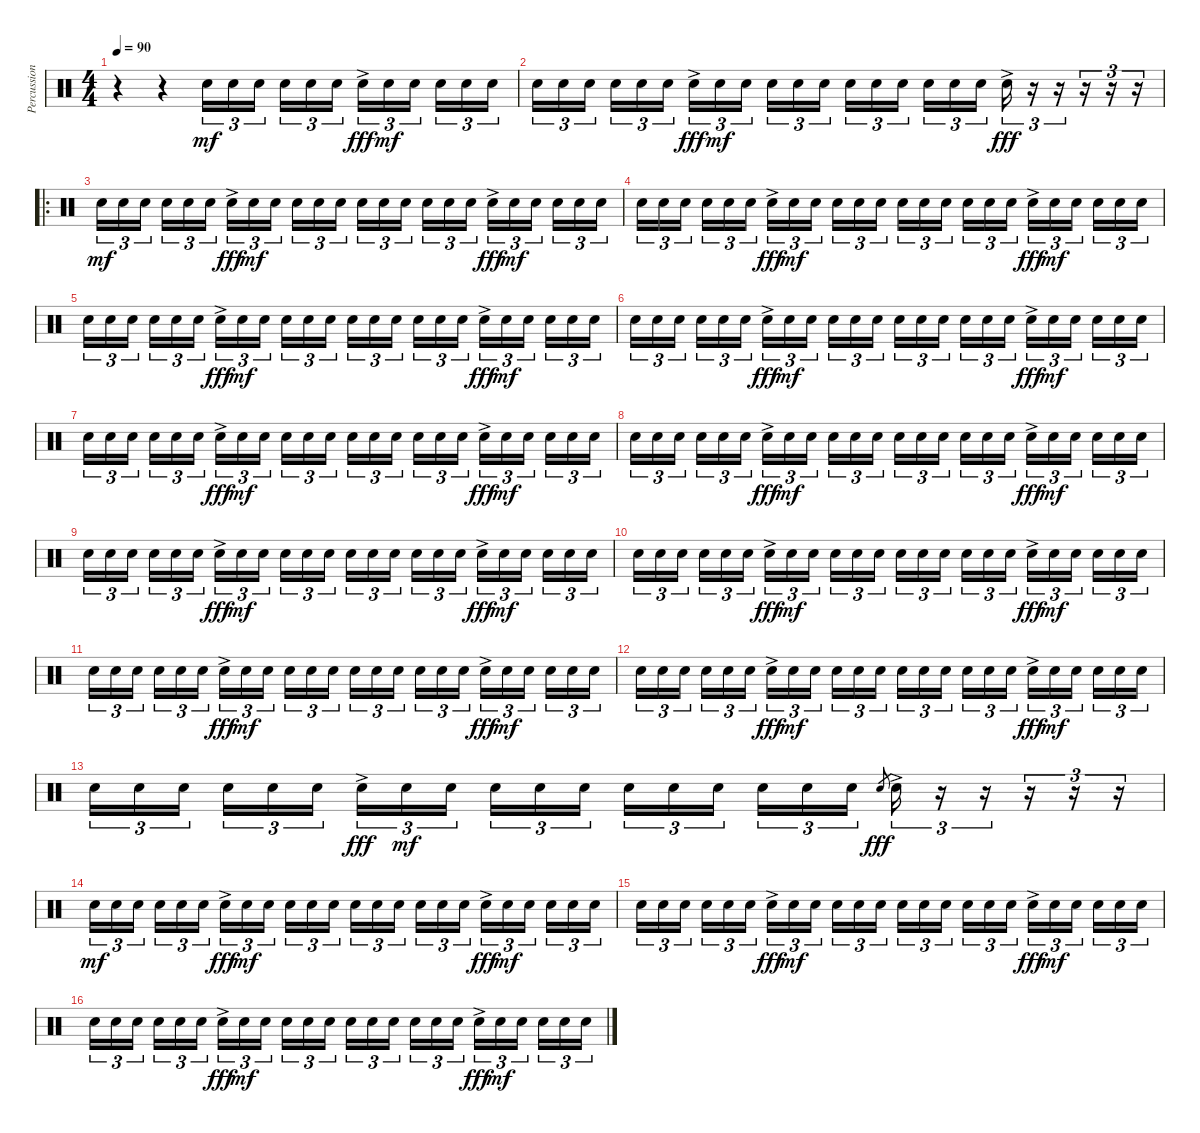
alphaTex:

\track ("Percussions" "Percussion") {instrument percussion}
\staff {score}
\articulation defaults
\ts (4 4)
\tempo 90
\clef neutral
\ks c
r.4{dy mf} r.4 "Electric Snare (hit)".16{tu (3 2)} "Electric Snare (hit)".16{tu (3 2)} "Electric Snare (hit)".16{tu (3 2)} "Electric Snare (hit)".16{tu (3 2)} "Electric Snare (hit)".16{tu (3 2)} "Electric Snare (hit)".16{tu (3 2)} "Electric Snare (hit)"{ac}.16{tu (3 2) dy fff} "Electric Snare (hit)".16{tu (3 2) dy mf} "Electric Snare (hit)".16{tu (3 2)} "Electric Snare (hit)".16{tu (3 2)} "Electric Snare (hit)".16{tu (3 2)} "Electric Snare (hit)".16{tu (3 2)} |
"Electric Snare (hit)".16{tu (3 2)} "Electric Snare (hit)".16{tu (3 2)} "Electric Snare (hit)".16{tu (3 2)} "Electric Snare (hit)".16{tu (3 2)} "Electric Snare (hit)".16{tu (3 2)} "Electric Snare (hit)".16{tu (3 2)} "Electric Snare (hit)"{ac}.16{tu (3 2) dy fff} "Electric Snare (hit)".16{tu (3 2) dy mf} "Electric Snare (hit)".16{tu (3 2)} "Electric Snare (hit)".16{tu (3 2)} "Electric Snare (hit)".16{tu (3 2)} "Electric Snare (hit)".16{tu (3 2)} "Electric Snare (hit)".16{tu (3 2)} "Electric Snare (hit)".16{tu (3 2)} "Electric Snare (hit)".16{tu (3 2)} "Electric Snare (hit)".16{tu (3 2)} "Electric Snare (hit)".16{tu (3 2)} "Electric Snare (hit)".16{tu (3 2)} "Electric Snare (hit)"{ac}.16{tu (3 2) dy fff} r.16{tu (3 2)} r.16{tu (3 2)} r.16{tu (3 2)} r.16{tu (3 2)} r.16{tu (3 2)} |
\ro
\section ("" "")
"Electric Snare (hit)".16{tu (3 2) dy mf} "Electric Snare (hit)".16{tu (3 2)} "Electric Snare (hit)".16{tu (3 2)} "Electric Snare (hit)".16{tu (3 2)} "Electric Snare (hit)".16{tu (3 2)} "Electric Snare (hit)".16{tu (3 2)} "Electric Snare (hit)"{ac}.16{tu (3 2) dy fff} "Electric Snare (hit)".16{tu (3 2) dy mf} "Electric Snare (hit)".16{tu (3 2)} "Electric Snare (hit)".16{tu (3 2)} "Electric Snare (hit)".16{tu (3 2)} "Electric Snare (hit)".16{tu (3 2)} "Electric Snare (hit)".16{tu (3 2)} "Electric Snare (hit)".16{tu (3 2)} "Electric Snare (hit)".16{tu (3 2)} "Electric Snare (hit)".16{tu (3 2)} "Electric Snare (hit)".16{tu (3 2)} "Electric Snare (hit)".16{tu (3 2)} "Electric Snare (hit)"{ac}.16{tu (3 2) dy fff} "Electric Snare (hit)".16{tu (3 2) dy mf} "Electric Snare (hit)".16{tu (3 2)} "Electric Snare (hit)".16{tu (3 2)} "Electric Snare (hit)".16{tu (3 2)} "Electric Snare (hit)".16{tu (3 2)} |
"Electric Snare (hit)".16{tu (3 2)} "Electric Snare (hit)".16{tu (3 2)} "Electric Snare (hit)".16{tu (3 2)} "Electric Snare (hit)".16{tu (3 2)} "Electric Snare (hit)".16{tu (3 2)} "Electric Snare (hit)".16{tu (3 2)} "Electric Snare (hit)"{ac}.16{tu (3 2) dy fff} "Electric Snare (hit)".16{tu (3 2) dy mf} "Electric Snare (hit)".16{tu (3 2)} "Electric Snare (hit)".16{tu (3 2)} "Electric Snare (hit)".16{tu (3 2)} "Electric Snare (hit)".16{tu (3 2)} "Electric Snare (hit)".16{tu (3 2)} "Electric Snare (hit)".16{tu (3 2)} "Electric Snare (hit)".16{tu (3 2)} "Electric Snare (hit)".16{tu (3 2)} "Electric Snare (hit)".16{tu (3 2)} "Electric Snare (hit)".16{tu (3 2)} "Electric Snare (hit)"{ac}.16{tu (3 2) dy fff} "Electric Snare (hit)".16{tu (3 2) dy mf} "Electric Snare (hit)".16{tu (3 2)} "Electric Snare (hit)".16{tu (3 2)} "Electric Snare (hit)".16{tu (3 2)} "Electric Snare (hit)".16{tu (3 2)} |
"Electric Snare (hit)".16{tu (3 2)} "Electric Snare (hit)".16{tu (3 2)} "Electric Snare (hit)".16{tu (3 2)} "Electric Snare (hit)".16{tu (3 2)} "Electric Snare (hit)".16{tu (3 2)} "Electric Snare (hit)".16{tu (3 2)} "Electric Snare (hit)"{ac}.16{tu (3 2) dy fff} "Electric Snare (hit)".16{tu (3 2) dy mf} "Electric Snare (hit)".16{tu (3 2)} "Electric Snare (hit)".16{tu (3 2)} "Electric Snare (hit)".16{tu (3 2)} "Electric Snare (hit)".16{tu (3 2)} "Electric Snare (hit)".16{tu (3 2)} "Electric Snare (hit)".16{tu (3 2)} "Electric Snare (hit)".16{tu (3 2)} "Electric Snare (hit)".16{tu (3 2)} "Electric Snare (hit)".16{tu (3 2)} "Electric Snare (hit)".16{tu (3 2)} "Electric Snare (hit)"{ac}.16{tu (3 2) dy fff} "Electric Snare (hit)".16{tu (3 2) dy mf} "Electric Snare (hit)".16{tu (3 2)} "Electric Snare (hit)".16{tu (3 2)} "Electric Snare (hit)".16{tu (3 2)} "Electric Snare (hit)".16{tu (3 2)} |
"Electric Snare (hit)".16{tu (3 2)} "Electric Snare (hit)".16{tu (3 2)} "Electric Snare (hit)".16{tu (3 2)} "Electric Snare (hit)".16{tu (3 2)} "Electric Snare (hit)".16{tu (3 2)} "Electric Snare (hit)".16{tu (3 2)} "Electric Snare (hit)"{ac}.16{tu (3 2) dy fff} "Electric Snare (hit)".16{tu (3 2) dy mf} "Electric Snare (hit)".16{tu (3 2)} "Electric Snare (hit)".16{tu (3 2)} "Electric Snare (hit)".16{tu (3 2)} "Electric Snare (hit)".16{tu (3 2)} "Electric Snare (hit)".16{tu (3 2)} "Electric Snare (hit)".16{tu (3 2)} "Electric Snare (hit)".16{tu (3 2)} "Electric Snare (hit)".16{tu (3 2)} "Electric Snare (hit)".16{tu (3 2)} "Electric Snare (hit)".16{tu (3 2)} "Electric Snare (hit)"{ac}.16{tu (3 2) dy fff} "Electric Snare (hit)".16{tu (3 2) dy mf} "Electric Snare (hit)".16{tu (3 2)} "Electric Snare (hit)".16{tu (3 2)} "Electric Snare (hit)".16{tu (3 2)} "Electric Snare (hit)".16{tu (3 2)} |
"Electric Snare (hit)".16{tu (3 2)} "Electric Snare (hit)".16{tu (3 2)} "Electric Snare (hit)".16{tu (3 2)} "Electric Snare (hit)".16{tu (3 2)} "Electric Snare (hit)".16{tu (3 2)} "Electric Snare (hit)".16{tu (3 2)} "Electric Snare (hit)"{ac}.16{tu (3 2) dy fff} "Electric Snare (hit)".16{tu (3 2) dy mf} "Electric Snare (hit)".16{tu (3 2)} "Electric Snare (hit)".16{tu (3 2)} "Electric Snare (hit)".16{tu (3 2)} "Electric Snare (hit)".16{tu (3 2)} "Electric Snare (hit)".16{tu (3 2)} "Electric Snare (hit)".16{tu (3 2)} "Electric Snare (hit)".16{tu (3 2)} "Electric Snare (hit)".16{tu (3 2)} "Electric Snare (hit)".16{tu (3 2)} "Electric Snare (hit)".16{tu (3 2)} "Electric Snare (hit)"{ac}.16{tu (3 2) dy fff} "Electric Snare (hit)".16{tu (3 2) dy mf} "Electric Snare (hit)".16{tu (3 2)} "Electric Snare (hit)".16{tu (3 2)} "Electric Snare (hit)".16{tu (3 2)} "Electric Snare (hit)".16{tu (3 2)} |
"Electric Snare (hit)".16{tu (3 2)} "Electric Snare (hit)".16{tu (3 2)} "Electric Snare (hit)".16{tu (3 2)} "Electric Snare (hit)".16{tu (3 2)} "Electric Snare (hit)".16{tu (3 2)} "Electric Snare (hit)".16{tu (3 2)} "Electric Snare (hit)"{ac}.16{tu (3 2) dy fff} "Electric Snare (hit)".16{tu (3 2) dy mf} "Electric Snare (hit)".16{tu (3 2)} "Electric Snare (hit)".16{tu (3 2)} "Electric Snare (hit)".16{tu (3 2)} "Electric Snare (hit)".16{tu (3 2)} "Electric Snare (hit)".16{tu (3 2)} "Electric Snare (hit)".16{tu (3 2)} "Electric Snare (hit)".16{tu (3 2)} "Electric Snare (hit)".16{tu (3 2)} "Electric Snare (hit)".16{tu (3 2)} "Electric Snare (hit)".16{tu (3 2)} "Electric Snare (hit)"{ac}.16{tu (3 2) dy fff} "Electric Snare (hit)".16{tu (3 2) dy mf} "Electric Snare (hit)".16{tu (3 2)} "Electric Snare (hit)".16{tu (3 2)} "Electric Snare (hit)".16{tu (3 2)} "Electric Snare (hit)".16{tu (3 2)} |
"Electric Snare (hit)".16{tu (3 2)} "Electric Snare (hit)".16{tu (3 2)} "Electric Snare (hit)".16{tu (3 2)} "Electric Snare (hit)".16{tu (3 2)} "Electric Snare (hit)".16{tu (3 2)} "Electric Snare (hit)".16{tu (3 2)} "Electric Snare (hit)"{ac}.16{tu (3 2) dy fff} "Electric Snare (hit)".16{tu (3 2) dy mf} "Electric Snare (hit)".16{tu (3 2)} "Electric Snare (hit)".16{tu (3 2)} "Electric Snare (hit)".16{tu (3 2)} "Electric Snare (hit)".16{tu (3 2)} "Electric Snare (hit)".16{tu (3 2)} "Electric Snare (hit)".16{tu (3 2)} "Electric Snare (hit)".16{tu (3 2)} "Electric Snare (hit)".16{tu (3 2)} "Electric Snare (hit)".16{tu (3 2)} "Electric Snare (hit)".16{tu (3 2)} "Electric Snare (hit)"{ac}.16{tu (3 2) dy fff} "Electric Snare (hit)".16{tu (3 2) dy mf} "Electric Snare (hit)".16{tu (3 2)} "Electric Snare (hit)".16{tu (3 2)} "Electric Snare (hit)".16{tu (3 2)} "Electric Snare (hit)".16{tu (3 2)} |
"Electric Snare (hit)".16{tu (3 2)} "Electric Snare (hit)".16{tu (3 2)} "Electric Snare (hit)".16{tu (3 2)} "Electric Snare (hit)".16{tu (3 2)} "Electric Snare (hit)".16{tu (3 2)} "Electric Snare (hit)".16{tu (3 2)} "Electric Snare (hit)"{ac}.16{tu (3 2) dy fff} "Electric Snare (hit)".16{tu (3 2) dy mf} "Electric Snare (hit)".16{tu (3 2)} "Electric Snare (hit)".16{tu (3 2)} "Electric Snare (hit)".16{tu (3 2)} "Electric Snare (hit)".16{tu (3 2)} "Electric Snare (hit)".16{tu (3 2)} "Electric Snare (hit)".16{tu (3 2)} "Electric Snare (hit)".16{tu (3 2)} "Electric Snare (hit)".16{tu (3 2)} "Electric Snare (hit)".16{tu (3 2)} "Electric Snare (hit)".16{tu (3 2)} "Electric Snare (hit)"{ac}.16{tu (3 2) dy fff} "Electric Snare (hit)".16{tu (3 2) dy mf} "Electric Snare (hit)".16{tu (3 2)} "Electric Snare (hit)".16{tu (3 2)} "Electric Snare (hit)".16{tu (3 2)} "Electric Snare (hit)".16{tu (3 2)} |
"Electric Snare (hit)".16{tu (3 2)} "Electric Snare (hit)".16{tu (3 2)} "Electric Snare (hit)".16{tu (3 2)} "Electric Snare (hit)".16{tu (3 2)} "Electric Snare (hit)".16{tu (3 2)} "Electric Snare (hit)".16{tu (3 2)} "Electric Snare (hit)"{ac}.16{tu (3 2) dy fff} "Electric Snare (hit)".16{tu (3 2) dy mf} "Electric Snare (hit)".16{tu (3 2)} "Electric Snare (hit)".16{tu (3 2)} "Electric Snare (hit)".16{tu (3 2)} "Electric Snare (hit)".16{tu (3 2)} "Electric Snare (hit)".16{tu (3 2)} "Electric Snare (hit)".16{tu (3 2)} "Electric Snare (hit)".16{tu (3 2)} "Electric Snare (hit)".16{tu (3 2)} "Electric Snare (hit)".16{tu (3 2)} "Electric Snare (hit)".16{tu (3 2)} "Electric Snare (hit)"{ac}.16{tu (3 2) dy fff} "Electric Snare (hit)".16{tu (3 2) dy mf} "Electric Snare (hit)".16{tu (3 2)} "Electric Snare (hit)".16{tu (3 2)} "Electric Snare (hit)".16{tu (3 2)} "Electric Snare (hit)".16{tu (3 2)} |
"Electric Snare (hit)".16{tu (3 2)} "Electric Snare (hit)".16{tu (3 2)} "Electric Snare (hit)".16{tu (3 2)} "Electric Snare (hit)".16{tu (3 2)} "Electric Snare (hit)".16{tu (3 2)} "Electric Snare (hit)".16{tu (3 2)} "Electric Snare (hit)"{ac}.16{tu (3 2) dy fff} "Electric Snare (hit)".16{tu (3 2) dy mf} "Electric Snare (hit)".16{tu (3 2)} "Electric Snare (hit)".16{tu (3 2)} "Electric Snare (hit)".16{tu (3 2)} "Electric Snare (hit)".16{tu (3 2)} "Electric Snare (hit)".16{tu (3 2)} "Electric Snare (hit)".16{tu (3 2)} "Electric Snare (hit)".16{tu (3 2)} "Electric Snare (hit)".16{tu (3 2)} "Electric Snare (hit)".16{tu (3 2)} "Electric Snare (hit)".16{tu (3 2)} "Electric Snare (hit)"{ac}.16{tu (3 2) dy fff} "Electric Snare (hit)".16{tu (3 2) dy mf} "Electric Snare (hit)".16{tu (3 2)} "Electric Snare (hit)".16{tu (3 2)} "Electric Snare (hit)".16{tu (3 2)} "Electric Snare (hit)".16{tu (3 2)} |
"Electric Snare (hit)".16{tu (3 2)} "Electric Snare (hit)".16{tu (3 2)} "Electric Snare (hit)".16{tu (3 2)} "Electric Snare (hit)".16{tu (3 2)} "Electric Snare (hit)".16{tu (3 2)} "Electric Snare (hit)".16{tu (3 2)} "Electric Snare (hit)"{ac}.16{tu (3 2) dy fff} "Electric Snare (hit)".16{tu (3 2) dy mf} "Electric Snare (hit)".16{tu (3 2)} "Electric Snare (hit)".16{tu (3 2)} "Electric Snare (hit)".16{tu (3 2)} "Electric Snare (hit)".16{tu (3 2)} "Electric Snare (hit)".16{tu (3 2)} "Electric Snare (hit)".16{tu (3 2)} "Electric Snare (hit)".16{tu (3 2)} "Electric Snare (hit)".16{tu (3 2)} "Electric Snare (hit)".16{tu (3 2)} "Electric Snare (hit)".16{tu (3 2)} "Electric Snare (hit)".8{gr dy fff} "Electric Snare (hit)"{ac}.16{tu (3 2)} r.16{tu (3 2)} r.16{tu (3 2)} r.16{tu (3 2)} r.16{tu (3 2)} r.16{tu (3 2)} |
"Electric Snare (hit)".16{tu (3 2) dy mf} "Electric Snare (hit)".16{tu (3 2)} "Electric Snare (hit)".16{tu (3 2)} "Electric Snare (hit)".16{tu (3 2)} "Electric Snare (hit)".16{tu (3 2)} "Electric Snare (hit)".16{tu (3 2)} "Electric Snare (hit)"{ac}.16{tu (3 2) dy fff} "Electric Snare (hit)".16{tu (3 2) dy mf} "Electric Snare (hit)".16{tu (3 2)} "Electric Snare (hit)".16{tu (3 2)} "Electric Snare (hit)".16{tu (3 2)} "Electric Snare (hit)".16{tu (3 2)} "Electric Snare (hit)".16{tu (3 2)} "Electric Snare (hit)".16{tu (3 2)} "Electric Snare (hit)".16{tu (3 2)} "Electric Snare (hit)".16{tu (3 2)} "Electric Snare (hit)".16{tu (3 2)} "Electric Snare (hit)".16{tu (3 2)} "Electric Snare (hit)"{ac}.16{tu (3 2) dy fff} "Electric Snare (hit)".16{tu (3 2) dy mf} "Electric Snare (hit)".16{tu (3 2)} "Electric Snare (hit)".16{tu (3 2)} "Electric Snare (hit)".16{tu (3 2)} "Electric Snare (hit)".16{tu (3 2)} |
"Electric Snare (hit)".16{tu (3 2)} "Electric Snare (hit)".16{tu (3 2)} "Electric Snare (hit)".16{tu (3 2)} "Electric Snare (hit)".16{tu (3 2)} "Electric Snare (hit)".16{tu (3 2)} "Electric Snare (hit)".16{tu (3 2)} "Electric Snare (hit)"{ac}.16{tu (3 2) dy fff} "Electric Snare (hit)".16{tu (3 2) dy mf} "Electric Snare (hit)".16{tu (3 2)} "Electric Snare (hit)".16{tu (3 2)} "Electric Snare (hit)".16{tu (3 2)} "Electric Snare (hit)".16{tu (3 2)} "Electric Snare (hit)".16{tu (3 2)} "Electric Snare (hit)".16{tu (3 2)} "Electric Snare (hit)".16{tu (3 2)} "Electric Snare (hit)".16{tu (3 2)} "Electric Snare (hit)".16{tu (3 2)} "Electric Snare (hit)".16{tu (3 2)} "Electric Snare (hit)"{ac}.16{tu (3 2) dy fff} "Electric Snare (hit)".16{tu (3 2) dy mf} "Electric Snare (hit)".16{tu (3 2)} "Electric Snare (hit)".16{tu (3 2)} "Electric Snare (hit)".16{tu (3 2)} "Electric Snare (hit)".16{tu (3 2)} |
"Electric Snare (hit)".16{tu (3 2)} "Electric Snare (hit)".16{tu (3 2)} "Electric Snare (hit)".16{tu (3 2)} "Electric Snare (hit)".16{tu (3 2)} "Electric Snare (hit)".16{tu (3 2)} "Electric Snare (hit)".16{tu (3 2)} "Electric Snare (hit)"{ac}.16{tu (3 2) dy fff} "Electric Snare (hit)".16{tu (3 2) dy mf} "Electric Snare (hit)".16{tu (3 2)} "Electric Snare (hit)".16{tu (3 2)} "Electric Snare (hit)".16{tu (3 2)} "Electric Snare (hit)".16{tu (3 2)} "Electric Snare (hit)".16{tu (3 2)} "Electric Snare (hit)".16{tu (3 2)} "Electric Snare (hit)".16{tu (3 2)} "Electric Snare (hit)".16{tu (3 2)} "Electric Snare (hit)".16{tu (3 2)} "Electric Snare (hit)".16{tu (3 2)} "Electric Snare (hit)"{ac}.16{tu (3 2) dy fff} "Electric Snare (hit)".16{tu (3 2) dy mf} "Electric Snare (hit)".16{tu (3 2)} "Electric Snare (hit)".16{tu (3 2)} "Electric Snare (hit)".16{tu (3 2)} "Electric Snare (hit)".16{tu (3 2)}
